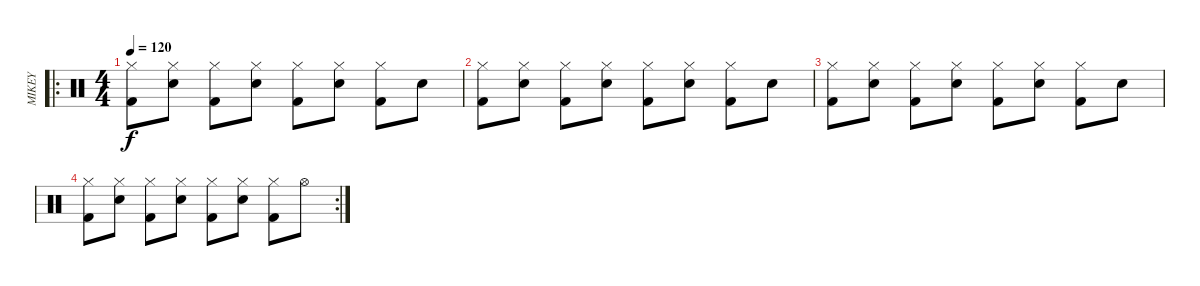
\track ("MIKEY" "MIKEY") {instrument percussion}
\staff {score}
\articulation defaults
\ro
\ts (4 4)
\tempo 120
\clef neutral
\ks c
("Hi-Hat (closed)" "Kick (hit) 2").8{dy f} ("Hi-Hat (closed)" "Snare (hit) 2").8 ("Hi-Hat (closed)" "Kick (hit) 2").8 ("Hi-Hat (closed)" "Snare (hit) 2").8 ("Hi-Hat (closed)" "Kick (hit) 2").8 ("Hi-Hat (closed)" "Snare (hit) 2").8 ("Hi-Hat (closed)" "Kick (hit) 2").8 "Snare (hit) 2".8 |
("Hi-Hat (closed)" "Kick (hit) 2").8 ("Hi-Hat (closed)" "Snare (hit) 2").8 ("Hi-Hat (closed)" "Kick (hit) 2").8 ("Hi-Hat (closed)" "Snare (hit) 2").8 ("Hi-Hat (closed)" "Kick (hit) 2").8 ("Hi-Hat (closed)" "Snare (hit) 2").8 ("Hi-Hat (closed)" "Kick (hit) 2").8 "Snare (hit) 2".8 |
("Hi-Hat (closed)" "Kick (hit) 2").8 ("Hi-Hat (closed)" "Snare (hit) 2").8 ("Hi-Hat (closed)" "Kick (hit) 2").8 ("Hi-Hat (closed)" "Snare (hit) 2").8 ("Hi-Hat (closed)" "Kick (hit) 2").8 ("Hi-Hat (closed)" "Snare (hit) 2").8 ("Hi-Hat (closed)" "Kick (hit) 2").8 "Snare (hit) 2".8 |
\rc 2
("Hi-Hat (closed)" "Kick (hit) 2").8 ("Hi-Hat (closed)" "Snare (hit) 2").8 ("Hi-Hat (closed)" "Kick (hit) 2").8 ("Hi-Hat (closed)" "Snare (hit) 2").8 ("Hi-Hat (closed)" "Kick (hit) 2").8 ("Hi-Hat (closed)" "Snare (hit) 2").8 ("Hi-Hat (closed)" "Kick (hit) 2").8 "Hi-Hat (open)".8
